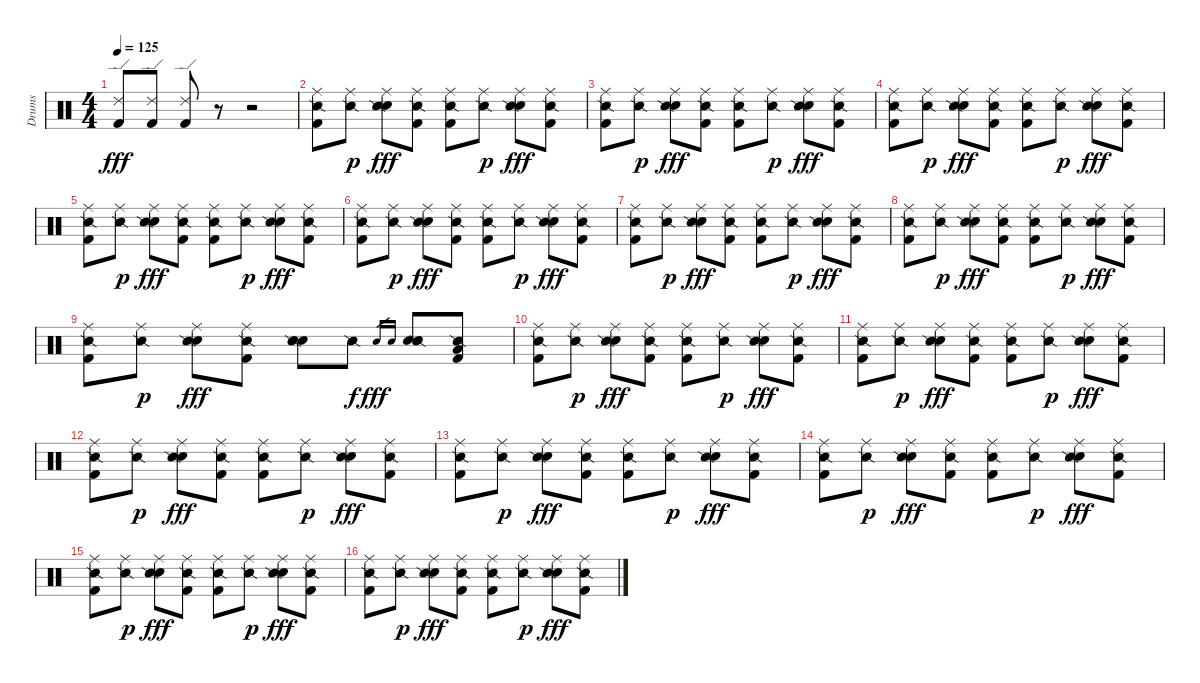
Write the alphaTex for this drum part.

\track ("Drums" "Drums") {instrument percussion}
\staff {score}
\articulation defaults
\ts (4 4)
\tempo 125
\clef neutral
\ks c
("Kick (hit) 2" "Ride (edge) 2").8{dy fff} ("Kick (hit) 2" "Ride (edge) 2").8 ("Kick (hit) 2" "Ride (edge) 2").8 r.8 r.2 |
("Kick (hit) 2" "Snare (side stick) 2" "Ride (middle)").8 ("Snare (side stick) 2" "Ride (middle)").8{dy p} ("Electric Snare (hit)" "Snare (side stick) 2" "Ride (middle)").8{dy fff} ("Kick (hit) 2" "Snare (side stick) 2" "Ride (middle)").8 ("Kick (hit) 2" "Snare (side stick) 2" "Ride (middle)").8 ("Snare (side stick) 2" "Ride (middle)").8{dy p} ("Electric Snare (hit)" "Snare (side stick) 2" "Ride (middle)").8{dy fff} ("Kick (hit) 2" "Snare (side stick) 2" "Ride (middle)").8 |
("Kick (hit) 2" "Snare (side stick) 2" "Ride (middle)").8 ("Snare (side stick) 2" "Ride (middle)").8{dy p} ("Electric Snare (hit)" "Snare (side stick) 2" "Ride (middle)").8{dy fff} ("Kick (hit) 2" "Snare (side stick) 2" "Ride (middle)").8 ("Kick (hit) 2" "Snare (side stick) 2" "Ride (middle)").8 ("Snare (side stick) 2" "Ride (middle)").8{dy p} ("Electric Snare (hit)" "Snare (side stick) 2" "Ride (middle)").8{dy fff} ("Kick (hit) 2" "Snare (side stick) 2" "Ride (middle)").8 |
("Kick (hit) 2" "Snare (side stick) 2" "Ride (middle)").8 ("Snare (side stick) 2" "Ride (middle)").8{dy p} ("Electric Snare (hit)" "Snare (side stick) 2" "Ride (middle)").8{dy fff} ("Kick (hit) 2" "Snare (side stick) 2" "Ride (middle)").8 ("Kick (hit) 2" "Snare (side stick) 2" "Ride (middle)").8 ("Snare (side stick) 2" "Ride (middle)").8{dy p} ("Electric Snare (hit)" "Snare (side stick) 2" "Ride (middle)").8{dy fff} ("Kick (hit) 2" "Snare (side stick) 2" "Ride (middle)").8 |
("Kick (hit) 2" "Snare (side stick) 2" "Ride (middle)").8 ("Snare (side stick) 2" "Ride (middle)").8{dy p} ("Electric Snare (hit)" "Snare (side stick) 2" "Ride (middle)").8{dy fff} ("Kick (hit) 2" "Snare (side stick) 2" "Ride (middle)").8 ("Kick (hit) 2" "Snare (side stick) 2" "Ride (middle)").8 ("Snare (side stick) 2" "Ride (middle)").8{dy p} ("Electric Snare (hit)" "Snare (side stick) 2" "Ride (middle)").8{dy fff} ("Kick (hit) 2" "Snare (side stick) 2" "Ride (middle)").8 |
("Kick (hit) 2" "Snare (side stick) 2" "Ride (middle)").8 ("Snare (side stick) 2" "Ride (middle)").8{dy p} ("Electric Snare (hit)" "Snare (side stick) 2" "Ride (middle)").8{dy fff} ("Kick (hit) 2" "Snare (side stick) 2" "Ride (middle)").8 ("Kick (hit) 2" "Snare (side stick) 2" "Ride (middle)").8 ("Snare (side stick) 2" "Ride (middle)").8{dy p} ("Electric Snare (hit)" "Snare (side stick) 2" "Ride (middle)").8{dy fff} ("Kick (hit) 2" "Snare (side stick) 2" "Ride (middle)").8 |
("Kick (hit) 2" "Snare (side stick) 2" "Ride (middle)").8 ("Snare (side stick) 2" "Ride (middle)").8{dy p} ("Electric Snare (hit)" "Snare (side stick) 2" "Ride (middle)").8{dy fff} ("Kick (hit) 2" "Snare (side stick) 2" "Ride (middle)").8 ("Kick (hit) 2" "Snare (side stick) 2" "Ride (middle)").8 ("Snare (side stick) 2" "Ride (middle)").8{dy p} ("Electric Snare (hit)" "Snare (side stick) 2" "Ride (middle)").8{dy fff} ("Kick (hit) 2" "Snare (side stick) 2" "Ride (middle)").8 |
("Kick (hit) 2" "Snare (side stick) 2" "Ride (middle)").8 ("Snare (side stick) 2" "Ride (middle)").8{dy p} ("Electric Snare (hit)" "Snare (side stick) 2" "Ride (middle)").8{dy fff} ("Kick (hit) 2" "Snare (side stick) 2" "Ride (middle)").8 ("Kick (hit) 2" "Snare (side stick) 2" "Ride (middle)").8 ("Snare (side stick) 2" "Ride (middle)").8{dy p} ("Electric Snare (hit)" "Snare (side stick) 2" "Ride (middle)").8{dy fff} ("Kick (hit) 2" "Snare (side stick) 2" "Ride (middle)").8 |
("Kick (hit) 2" "Snare (side stick) 2" "Ride (middle)").8 ("Snare (side stick) 2" "Ride (middle)").8{dy p} ("Electric Snare (hit)" "Snare (side stick) 2" "Ride (middle)").8{dy fff} ("Kick (hit) 2" "Snare (side stick) 2" "Ride (middle)").8 ("Electric Snare (hit)" "Snare (side stick) 2" "Electric Snare (hit)").8 "Snare (side stick) 2".8{dy f} "Electric Snare (hit)".16{gr dy fff} "Electric Snare (hit)".16{gr} ("Electric Snare (hit)" "Snare (side stick) 2" "Electric Snare (hit)").8 ("Kick (hit) 2" "Snare (side stick) 2" "Low Floor Tom (hit)").8 |
("Kick (hit) 2" "Snare (side stick) 2" "Ride (middle)").8 ("Snare (side stick) 2" "Ride (middle)").8{dy p} ("Electric Snare (hit)" "Snare (side stick) 2" "Ride (middle)").8{dy fff} ("Kick (hit) 2" "Snare (side stick) 2" "Ride (middle)").8 ("Kick (hit) 2" "Snare (side stick) 2" "Ride (middle)").8 ("Snare (side stick) 2" "Ride (middle)").8{dy p} ("Electric Snare (hit)" "Snare (side stick) 2" "Ride (middle)").8{dy fff} ("Kick (hit) 2" "Snare (side stick) 2" "Ride (middle)").8 |
("Kick (hit) 2" "Snare (side stick) 2" "Ride (middle)").8 ("Snare (side stick) 2" "Ride (middle)").8{dy p} ("Electric Snare (hit)" "Snare (side stick) 2" "Ride (middle)").8{dy fff} ("Kick (hit) 2" "Snare (side stick) 2" "Ride (middle)").8 ("Kick (hit) 2" "Snare (side stick) 2" "Ride (middle)").8 ("Snare (side stick) 2" "Ride (middle)").8{dy p} ("Electric Snare (hit)" "Snare (side stick) 2" "Ride (middle)").8{dy fff} ("Kick (hit) 2" "Snare (side stick) 2" "Ride (middle)").8 |
("Kick (hit) 2" "Snare (side stick) 2" "Ride (middle)").8 ("Snare (side stick) 2" "Ride (middle)").8{dy p} ("Electric Snare (hit)" "Snare (side stick) 2" "Ride (middle)").8{dy fff} ("Kick (hit) 2" "Snare (side stick) 2" "Ride (middle)").8 ("Kick (hit) 2" "Snare (side stick) 2" "Ride (middle)").8 ("Snare (side stick) 2" "Ride (middle)").8{dy p} ("Electric Snare (hit)" "Snare (side stick) 2" "Ride (middle)").8{dy fff} ("Kick (hit) 2" "Snare (side stick) 2" "Ride (middle)").8 |
("Kick (hit) 2" "Snare (side stick) 2" "Ride (middle)").8 ("Snare (side stick) 2" "Ride (middle)").8{dy p} ("Electric Snare (hit)" "Snare (side stick) 2" "Ride (middle)").8{dy fff} ("Kick (hit) 2" "Snare (side stick) 2" "Ride (middle)").8 ("Kick (hit) 2" "Snare (side stick) 2" "Ride (middle)").8 ("Snare (side stick) 2" "Ride (middle)").8{dy p} ("Electric Snare (hit)" "Snare (side stick) 2" "Ride (middle)").8{dy fff} ("Kick (hit) 2" "Snare (side stick) 2" "Ride (middle)").8 |
("Kick (hit) 2" "Snare (side stick) 2" "Ride (middle)").8 ("Snare (side stick) 2" "Ride (middle)").8{dy p} ("Electric Snare (hit)" "Snare (side stick) 2" "Ride (middle)").8{dy fff} ("Kick (hit) 2" "Snare (side stick) 2" "Ride (middle)").8 ("Kick (hit) 2" "Snare (side stick) 2" "Ride (middle)").8 ("Snare (side stick) 2" "Ride (middle)").8{dy p} ("Electric Snare (hit)" "Snare (side stick) 2" "Ride (middle)").8{dy fff} ("Kick (hit) 2" "Snare (side stick) 2" "Ride (middle)").8 |
("Kick (hit) 2" "Snare (side stick) 2" "Ride (middle)").8 ("Snare (side stick) 2" "Ride (middle)").8{dy p} ("Electric Snare (hit)" "Snare (side stick) 2" "Ride (middle)").8{dy fff} ("Kick (hit) 2" "Snare (side stick) 2" "Ride (middle)").8 ("Kick (hit) 2" "Snare (side stick) 2" "Ride (middle)").8 ("Snare (side stick) 2" "Ride (middle)").8{dy p} ("Electric Snare (hit)" "Snare (side stick) 2" "Ride (middle)").8{dy fff} ("Kick (hit) 2" "Snare (side stick) 2" "Ride (middle)").8 |
("Kick (hit) 2" "Snare (side stick) 2" "Ride (middle)").8 ("Snare (side stick) 2" "Ride (middle)").8{dy p} ("Electric Snare (hit)" "Snare (side stick) 2" "Ride (middle)").8{dy fff} ("Kick (hit) 2" "Snare (side stick) 2" "Ride (middle)").8 ("Kick (hit) 2" "Snare (side stick) 2" "Ride (middle)").8 ("Snare (side stick) 2" "Ride (middle)").8{dy p} ("Electric Snare (hit)" "Snare (side stick) 2" "Ride (middle)").8{dy fff} ("Kick (hit) 2" "Snare (side stick) 2" "Ride (middle)").8
